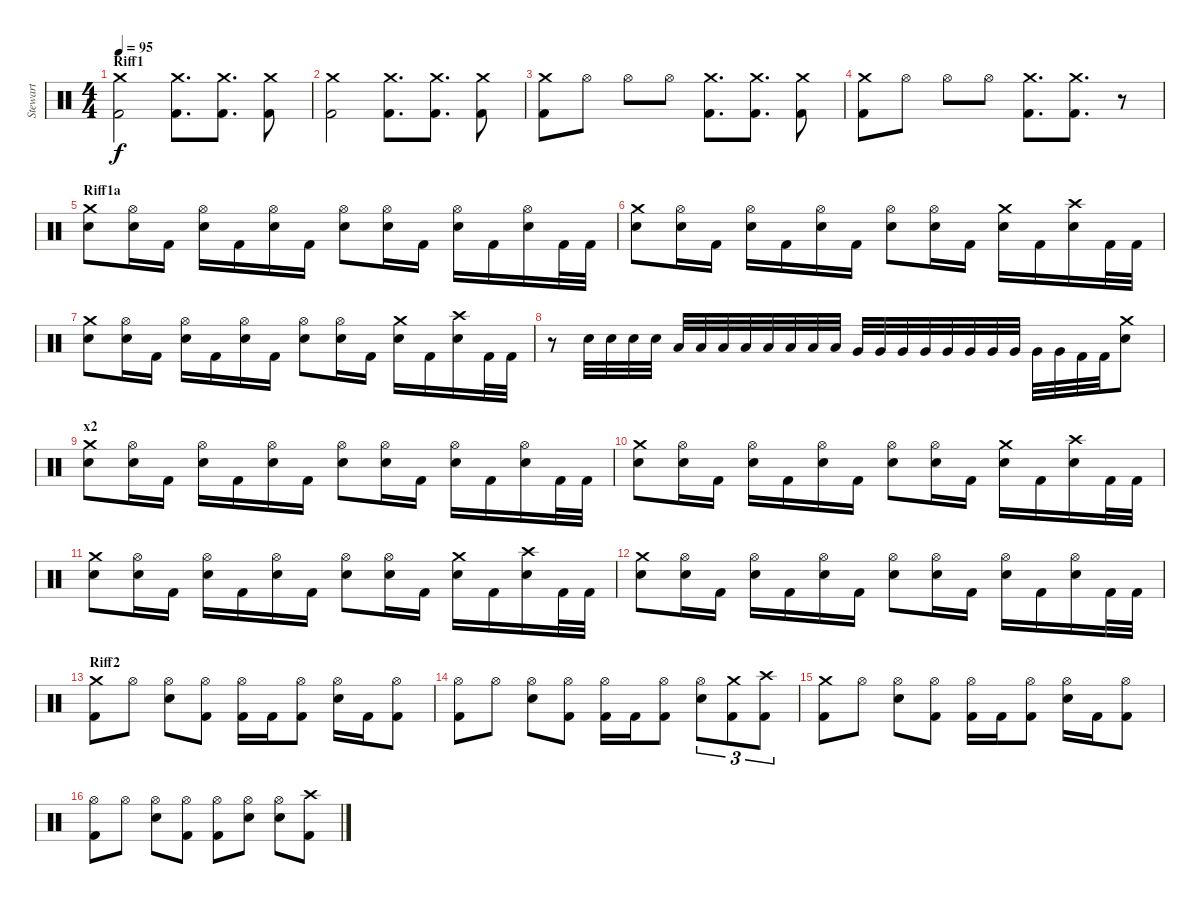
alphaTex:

\track ("Stewart" "Stewart") {instrument percussion}
\staff {score}
\articulation defaults
\ts (4 4)
\section ("" "Riff1")
\tempo 95
\clef neutral
\ks c
("Crash medium (hit)" "Kick (hit) 2").2{dy f} ("Crash medium (hit)" "Kick (hit) 2").8{d} ("Crash medium (hit)" "Kick (hit) 2").8{d} ("Crash medium (hit)" "Kick (hit) 2").8 |
("Crash medium (hit)" "Kick (hit) 2").2 ("Crash medium (hit)" "Kick (hit) 2").8{d} ("Crash medium (hit)" "Kick (hit) 2").8{d} ("Crash medium (hit)" "Kick (hit) 2").8 |
("Crash medium (hit)" "Kick (hit) 2").8 "Hi-Hat (open)".8 "Hi-Hat (open)".8 "Hi-Hat (open)".8 ("Crash medium (hit)" "Kick (hit) 2").8{d} ("Crash medium (hit)" "Kick (hit) 2").8{d} ("Crash medium (hit)" "Kick (hit) 2").8 |
("Crash medium (hit)" "Kick (hit) 2").8 "Hi-Hat (open)".8 "Hi-Hat (open)".8 "Hi-Hat (open)".8 ("Crash medium (hit)" "Kick (hit) 2").8{d} ("Crash medium (hit)" "Kick (hit) 2").8{d} r.8 |
\section ("" "Riff1a")
("Crash medium (hit)" "Electric Snare (hit)").8 ("Hi-Hat (open)" "Electric Snare (hit)").16 "Kick (hit) 2".16 ("Hi-Hat (open)" "Electric Snare (hit)").16 "Kick (hit) 2".16 ("Hi-Hat (open)" "Electric Snare (hit)").16 "Kick (hit) 2".16 ("Hi-Hat (open)" "Electric Snare (hit)").8 ("Hi-Hat (open)" "Electric Snare (hit)").16 "Kick (hit) 2".16 ("Hi-Hat (open)" "Electric Snare (hit)").16 "Kick (hit) 2".16 ("Hi-Hat (open)" "Electric Snare (hit)").16 "Kick (hit) 2".32 "Kick (hit) 2".32 |
("Crash medium (hit)" "Electric Snare (hit)").8 ("Hi-Hat (open)" "Electric Snare (hit)").16 "Kick (hit) 2".16 ("Hi-Hat (open)" "Electric Snare (hit)").16 "Kick (hit) 2".16 ("Hi-Hat (open)" "Electric Snare (hit)").16 "Kick (hit) 2".16 ("Hi-Hat (open)" "Electric Snare (hit)").8 ("Hi-Hat (open)" "Electric Snare (hit)").16 "Kick (hit) 2".16 ("Crash medium (hit)" "Electric Snare (hit)").16 "Kick (hit) 2".16 ("Crash high (hit)" "Electric Snare (hit)").16 "Kick (hit) 2".32 "Kick (hit) 2".32 |
("Crash medium (hit)" "Electric Snare (hit)").8 ("Hi-Hat (open)" "Electric Snare (hit)").16 "Kick (hit) 2".16 ("Hi-Hat (open)" "Electric Snare (hit)").16 "Kick (hit) 2".16 ("Hi-Hat (open)" "Electric Snare (hit)").16 "Kick (hit) 2".16 ("Hi-Hat (open)" "Electric Snare (hit)").8 ("Hi-Hat (open)" "Electric Snare (hit)").16 "Kick (hit) 2".16 ("Crash medium (hit)" "Electric Snare (hit)").16 "Kick (hit) 2".16 ("Crash high (hit)" "Electric Snare (hit)").16 "Kick (hit) 2".32 "Kick (hit) 2".32 |
r.8 "Electric Snare (hit)".32 "Electric Snare (hit)".32 "Electric Snare (hit)".32 "Electric Snare (hit)".32 "Low Tom (hit)".32 "Low Tom (hit)".32 "Low Tom (hit)".32 "Low Tom (hit)".32 "Low Tom (hit)".32 "Low Tom (hit)".32 "Low Tom (hit)".32 "Low Tom (hit)".32 "Very Low Tom (hit)".32 "Very Low Tom (hit)".32 "Very Low Tom (hit)".32 "Very Low Tom (hit)".32 "Very Low Tom (hit)".32 "Very Low Tom (hit)".32 "Very Low Tom (hit)".32 "Very Low Tom (hit)".32 "Very Low Tom (hit)".32 "Very Low Tom (hit)".32 "Kick (hit) 2".32 "Kick (hit) 2".32 ("Crash medium (hit)" "Electric Snare (hit)").8 |
\section ("" "x2")
("Crash medium (hit)" "Electric Snare (hit)").8 ("Hi-Hat (open)" "Electric Snare (hit)").16 "Kick (hit) 2".16 ("Hi-Hat (open)" "Electric Snare (hit)").16 "Kick (hit) 2".16 ("Hi-Hat (open)" "Electric Snare (hit)").16 "Kick (hit) 2".16 ("Hi-Hat (open)" "Electric Snare (hit)").8 ("Hi-Hat (open)" "Electric Snare (hit)").16 "Kick (hit) 2".16 ("Hi-Hat (open)" "Electric Snare (hit)").16 "Kick (hit) 2".16 ("Hi-Hat (open)" "Electric Snare (hit)").16 "Kick (hit) 2".32 "Kick (hit) 2".32 |
("Crash medium (hit)" "Electric Snare (hit)").8 ("Hi-Hat (open)" "Electric Snare (hit)").16 "Kick (hit) 2".16 ("Hi-Hat (open)" "Electric Snare (hit)").16 "Kick (hit) 2".16 ("Hi-Hat (open)" "Electric Snare (hit)").16 "Kick (hit) 2".16 ("Hi-Hat (open)" "Electric Snare (hit)").8 ("Hi-Hat (open)" "Electric Snare (hit)").16 "Kick (hit) 2".16 ("Crash medium (hit)" "Electric Snare (hit)").16 "Kick (hit) 2".16 ("Crash high (hit)" "Electric Snare (hit)").16 "Kick (hit) 2".32 "Kick (hit) 2".32 |
("Crash medium (hit)" "Electric Snare (hit)").8 ("Hi-Hat (open)" "Electric Snare (hit)").16 "Kick (hit) 2".16 ("Hi-Hat (open)" "Electric Snare (hit)").16 "Kick (hit) 2".16 ("Hi-Hat (open)" "Electric Snare (hit)").16 "Kick (hit) 2".16 ("Hi-Hat (open)" "Electric Snare (hit)").8 ("Hi-Hat (open)" "Electric Snare (hit)").16 "Kick (hit) 2".16 ("Crash medium (hit)" "Electric Snare (hit)").16 "Kick (hit) 2".16 ("Crash high (hit)" "Electric Snare (hit)").16 "Kick (hit) 2".32 "Kick (hit) 2".32 |
("Crash medium (hit)" "Electric Snare (hit)").8 ("Hi-Hat (open)" "Electric Snare (hit)").16 "Kick (hit) 2".16 ("Hi-Hat (open)" "Electric Snare (hit)").16 "Kick (hit) 2".16 ("Hi-Hat (open)" "Electric Snare (hit)").16 "Kick (hit) 2".16 ("Hi-Hat (open)" "Electric Snare (hit)").8 ("Hi-Hat (open)" "Electric Snare (hit)").16 "Kick (hit) 2".16 ("Hi-Hat (open)" "Electric Snare (hit)").16 "Kick (hit) 2".16 ("Hi-Hat (open)" "Electric Snare (hit)").16 "Kick (hit) 2".32 "Kick (hit) 2".32 |
\section ("" "Riff2")
("Crash medium (hit)" "Kick (hit) 2").8 "Hi-Hat (open)".8 ("Hi-Hat (open)" "Electric Snare (hit)").8 ("Hi-Hat (open)" "Kick (hit) 2").8 ("Hi-Hat (open)" "Kick (hit) 2").16 "Kick (hit) 2".16 ("Hi-Hat (open)" "Kick (hit) 2").8 ("Hi-Hat (open)" "Electric Snare (hit)").16 "Kick (hit) 2".16 ("Hi-Hat (open)" "Kick (hit) 2").8 |
("Hi-Hat (open)" "Kick (hit) 2").8 "Hi-Hat (open)".8 ("Hi-Hat (open)" "Electric Snare (hit)").8 ("Hi-Hat (open)" "Kick (hit) 2").8 ("Hi-Hat (open)" "Kick (hit) 2").16 "Kick (hit) 2".16 ("Hi-Hat (open)" "Kick (hit) 2").8 ("Hi-Hat (open)" "Electric Snare (hit)").8{tu (3 2)} ("Crash medium (hit)" "Kick (hit) 2").8{tu (3 2)} ("Crash high (hit)" "Kick (hit) 2").8{tu (3 2)} |
("Crash medium (hit)" "Kick (hit) 2").8 "Hi-Hat (open)".8 ("Hi-Hat (open)" "Electric Snare (hit)").8 ("Hi-Hat (open)" "Kick (hit) 2").8 ("Hi-Hat (open)" "Kick (hit) 2").16 "Kick (hit) 2".16 ("Hi-Hat (open)" "Kick (hit) 2").8 ("Hi-Hat (open)" "Electric Snare (hit)").16 "Kick (hit) 2".16 ("Hi-Hat (open)" "Kick (hit) 2").8 |
("Hi-Hat (open)" "Kick (hit) 2").8 "Hi-Hat (open)".8 ("Hi-Hat (open)" "Electric Snare (hit)").8 ("Hi-Hat (open)" "Kick (hit) 2").8 ("Hi-Hat (open)" "Kick (hit) 2").8 ("Hi-Hat (open)" "Electric Snare (hit)").8 ("Hi-Hat (open)" "Electric Snare (hit)").8 ("Crash high (hit)" "Kick (hit) 2").8
